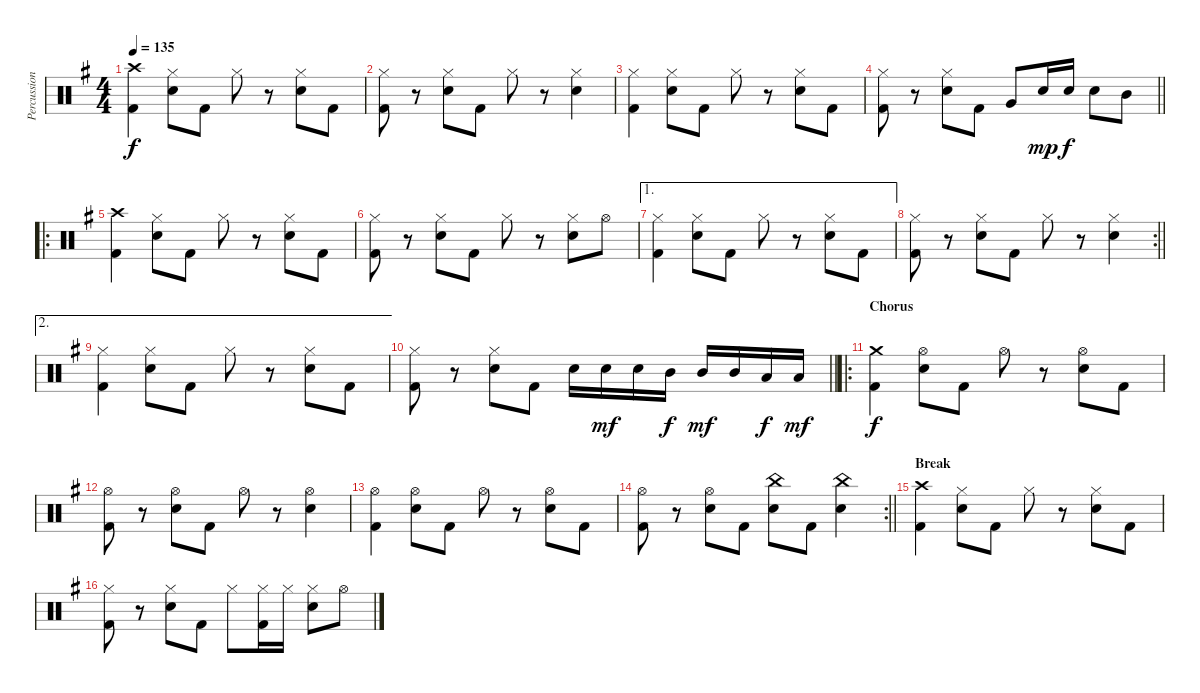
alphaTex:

\track ("Percussion" "Percussion") {instrument percussion}
\staff {score}
\articulation defaults
\ts (4 4)
\tempo 135
\clef neutral
\ks g
("Crash high (hit)" "Kick (hit) 2").4{dy f} ("Hi-Hat (closed)" "Electric Snare (hit)").8 "Kick (hit) 2".8 "Hi-Hat (closed)".8 r.8 ("Hi-Hat (closed)" "Electric Snare (hit)").8 "Kick (hit) 2".8 |
("Hi-Hat (closed)" "Kick (hit) 2").8 r.8 ("Hi-Hat (closed)" "Electric Snare (hit)").8 "Kick (hit) 2".8 "Hi-Hat (closed)".8 r.8 ("Hi-Hat (closed)" "Electric Snare (hit)").4 |
("Hi-Hat (closed)" "Kick (hit) 2").4 ("Hi-Hat (closed)" "Electric Snare (hit)").8 "Kick (hit) 2".8 "Hi-Hat (closed)".8 r.8 ("Hi-Hat (closed)" "Electric Snare (hit)").8 "Kick (hit) 2".8 |
\barLineRight lightlight
("Hi-Hat (closed)" "Kick (hit) 2").8 r.8 ("Hi-Hat (closed)" "Electric Snare (hit)").8 "Kick (hit) 2".8 "Very Low Tom (hit)".8 "Electric Snare (hit)".16{dy mp} "Electric Snare (hit)".16{dy f} "Electric Snare (hit)".8 "Mid Tom (hit)".8 |
\ro
("Crash high (hit)" "Kick (hit) 2").4 ("Hi-Hat (closed)" "Electric Snare (hit)").8 "Kick (hit) 2".8 "Hi-Hat (closed)".8 r.8 ("Hi-Hat (closed)" "Electric Snare (hit)").8 "Kick (hit) 2".8 |
("Hi-Hat (closed)" "Kick (hit) 2").8 r.8 ("Hi-Hat (closed)" "Electric Snare (hit)").8 "Kick (hit) 2".8 "Hi-Hat (closed)".8 r.8 ("Hi-Hat (closed)" "Electric Snare (hit)").8 "Hi-Hat (open)".8 |
\ae 1
("Hi-Hat (closed)" "Kick (hit) 2").4 ("Hi-Hat (closed)" "Electric Snare (hit)").8 "Kick (hit) 2".8 "Hi-Hat (closed)".8 r.8 ("Hi-Hat (closed)" "Electric Snare (hit)").8 "Kick (hit) 2".8 |
\rc 2
\barLineRight lightlight
("Hi-Hat (closed)" "Kick (hit) 2").8 r.8 ("Hi-Hat (closed)" "Electric Snare (hit)").8 "Kick (hit) 2".8 "Hi-Hat (closed)".8 r.8 ("Hi-Hat (closed)" "Electric Snare (hit)").4 |
\ae 2
("Hi-Hat (closed)" "Kick (hit) 2").4 ("Hi-Hat (closed)" "Electric Snare (hit)").8 "Kick (hit) 2".8 "Hi-Hat (closed)".8 r.8 ("Hi-Hat (closed)" "Electric Snare (hit)").8 "Kick (hit) 2".8 |
\barLineRight lightlight
("Hi-Hat (closed)" "Kick (hit) 2").8 r.8 ("Hi-Hat (closed)" "Electric Snare (hit)").8 "Kick (hit) 2".8 "Electric Snare (hit)".16 "Electric Snare (hit)".16{dy mf} "Electric Snare (hit)".16 "Mid Tom (hit)".16{dy f} "Mid Tom (hit)".16{dy mf} "Mid Tom (hit)".16 "Low Tom (hit)".16{dy f} "Low Tom (hit)".16{dy mf} |
\ro
\section ("" "Chorus")
("Crash medium (hit)" "Kick (hit) 2").4{dy f} ("Hi-Hat (open)" "Electric Snare (hit)").8 "Kick (hit) 2".8 "Hi-Hat (open)".8 r.8 ("Hi-Hat (open)" "Electric Snare (hit)").8 "Kick (hit) 2".8 |
("Hi-Hat (open)" "Kick (hit) 2").8 r.8 ("Hi-Hat (open)" "Electric Snare (hit)").8 "Kick (hit) 2".8 "Hi-Hat (open)".8 r.8 ("Hi-Hat (open)" "Electric Snare (hit)").4 |
("Hi-Hat (open)" "Kick (hit) 2").4 ("Hi-Hat (open)" "Electric Snare (hit)").8 "Kick (hit) 2".8 "Hi-Hat (open)".8 r.8 ("Hi-Hat (open)" "Electric Snare (hit)").8 "Kick (hit) 2".8 |
\rc 2
\barLineRight lightlight
("Hi-Hat (open)" "Kick (hit) 2").8 r.8 ("Hi-Hat (open)" "Electric Snare (hit)").8 "Kick (hit) 2".8 ("China (hit)" "Electric Snare (hit)").8 "Kick (hit) 2".8 ("China (hit)" "Electric Snare (hit)").4 |
\section ("" "Break")
("Crash high (hit)" "Kick (hit) 2").4 ("Hi-Hat (closed)" "Electric Snare (hit)").8 "Kick (hit) 2".8 "Hi-Hat (closed)".8 r.8 ("Hi-Hat (closed)" "Electric Snare (hit)").8 "Kick (hit) 2".8 |
("Hi-Hat (closed)" "Kick (hit) 2").8 r.8 ("Hi-Hat (closed)" "Electric Snare (hit)").8 "Kick (hit) 2".8 "Hi-Hat (closed)".8 ("Kick (hit) 2" "Hi-Hat (closed)").16 "Hi-Hat (closed)".16 ("Hi-Hat (closed)" "Electric Snare (hit)").8 "Hi-Hat (open)".8
